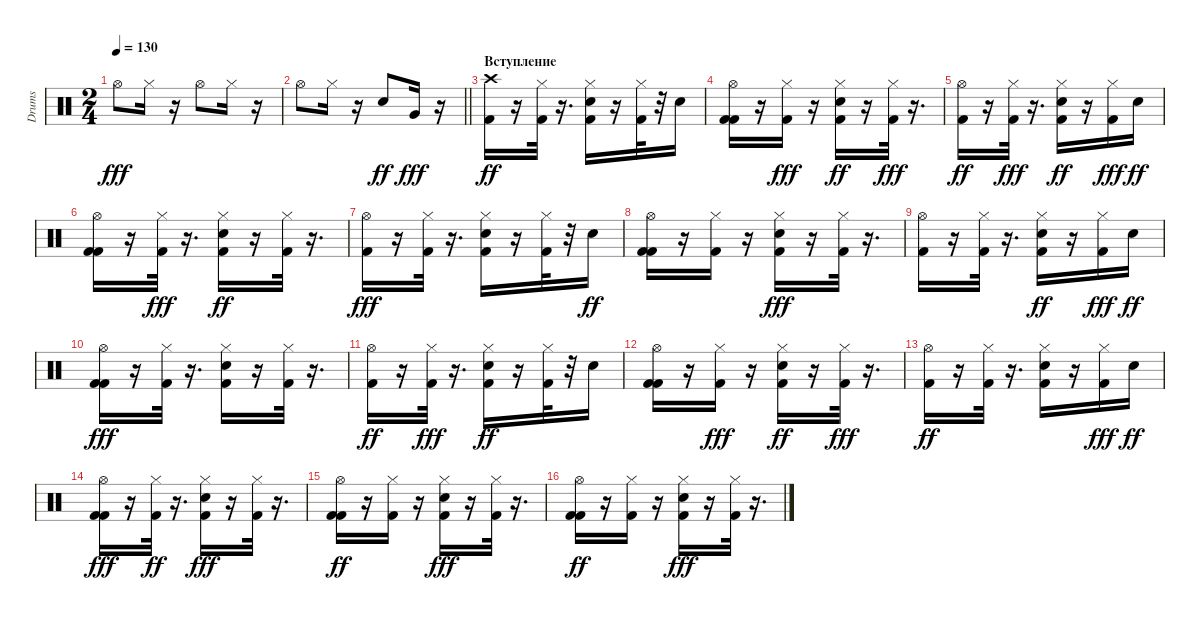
\track ("Drums" "Drums") {solo instrument percussion}
\staff {score}
\articulation defaults
\ts (2 4)
\tempo 130
\clef neutral
\ks c "Hi-Hat (open)".8{dy fff} "Hi-Hat (closed)".16
r.16 "Hi-Hat (open)".8 "Hi-Hat (closed)".16 r.16 |
\barLineRight lightlight "Hi-Hat (open)".8 "Hi-Hat (closed)".16
r.16 "Electric Snare (hit)".8{dy ff} "Very Low Tom (hit)".16{dy fff} r.16 |
\section ("" "Вступление")
("Crash high (hit)" "Kick (hit) 2").16{dy ff} r.16 ("Hi-Hat (closed)" "Kick (hit) 2").32 r.16{d} ("Hi-Hat (closed)" "Snare (hit) 2" "Kick (hit) 2").16 r.16 ("Hi-Hat (closed)" "Kick (hit) 2").32 r.32 "Snare (hit) 2".16 |
("Kick (hit) 2" "Hi-Hat (open)" "Kick (hit) 2").16 r.16 ("Kick (hit) 2" "Hi-Hat (closed)").16{dy fff} r.16 ("Snare (hit) 2" "Hi-Hat (closed)" "Kick (hit) 2").16{dy ff} r.16 ("Kick (hit) 2" "Hi-Hat (closed)").32{dy fff} r.16{d} |
("Hi-Hat (open)" "Kick (hit) 2").16{dy ff} r.16 ("Kick (hit) 2" "Hi-Hat (closed)").32{dy fff} r.16{d} ("Kick (hit) 2" "Hi-Hat (closed)" "Snare (hit) 2").16{dy ff} r.16 ("Kick (hit) 2" "Hi-Hat (closed)").16{dy fff} "Snare (hit) 2".16{dy ff} |
("Kick (hit) 2" "Hi-Hat (open)" "Kick (hit) 2").16 r.16 ("Kick (hit) 2" "Hi-Hat (closed)").32{dy fff} r.16{d} ("Hi-Hat (closed)" "Kick (hit) 2" "Snare (hit) 2").16{dy ff} r.16 ("Hi-Hat (closed)" "Kick (hit) 2").32 r.16{d} |
("Kick (hit) 2" "Hi-Hat (open)").16{dy fff} r.16 ("Kick (hit) 2" "Hi-Hat (closed)").32 r.16{d} ("Snare (hit) 2" "Kick (hit) 2" "Hi-Hat (closed)").16 r.16 ("Kick (hit) 2" "Hi-Hat (closed)").32 r.32 "Snare (hit) 2".16{dy ff} |
("Kick (hit) 2" "Hi-Hat (open)" "Kick (hit) 2").16 r.16 ("Hi-Hat (closed)" "Kick (hit) 2").16 r.16 ("Snare (hit) 2" "Kick (hit) 2" "Hi-Hat (closed)").16{dy fff} r.16 ("Kick (hit) 2" "Hi-Hat (closed)").32 r.16{d} |
("Kick (hit) 2" "Hi-Hat (open)").16 r.16 ("Kick (hit) 2" "Hi-Hat (closed)").32 r.16{d} ("Hi-Hat (closed)" "Kick (hit) 2" "Snare (hit) 2").16{dy ff} r.16 ("Kick (hit) 2" "Hi-Hat (closed)").16{dy fff} "Snare (hit) 2".16{dy ff} |
("Kick (hit) 2" "Kick (hit) 2" "Hi-Hat (open)").16{dy fff} r.16 ("Kick (hit) 2" "Hi-Hat (closed)").32 r.16{d} ("Snare (hit) 2" "Kick (hit) 2" "Hi-Hat (closed)").16 r.16 ("Kick (hit) 2" "Hi-Hat (closed)").32 r.16{d} |
("Hi-Hat (open)" "Kick (hit) 2").16{dy ff} r.16 ("Kick (hit) 2" "Hi-Hat (closed)").32{dy fff} r.16{d} ("Snare (hit) 2" "Hi-Hat (closed)" "Kick (hit) 2").16{dy ff} r.16 ("Hi-Hat (closed)" "Kick (hit) 2").32 r.32 "Snare (hit) 2".16 |
("Hi-Hat (open)" "Kick (hit) 2" "Kick (hit) 2").16 r.16 ("Kick (hit) 2" "Hi-Hat (closed)").16{dy fff} r.16 ("Hi-Hat (closed)" "Kick (hit) 2" "Snare (hit) 2").16{dy ff} r.16 ("Kick (hit) 2" "Hi-Hat (closed)").32{dy fff} r.16{d} |
("Hi-Hat (open)" "Kick (hit) 2").16{dy ff} r.16 ("Hi-Hat (closed)" "Kick (hit) 2").32 r.16{d} ("Hi-Hat (closed)" "Kick (hit) 2" "Snare (hit) 2").16 r.16 ("Kick (hit) 2" "Hi-Hat (closed)").16{dy fff} "Snare (hit) 2".16{dy ff} |
("Kick (hit) 2" "Kick (hit) 2" "Hi-Hat (open)").16{dy fff} r.16 ("Hi-Hat (closed)" "Kick (hit) 2").32{dy ff} r.16{d} ("Snare (hit) 2" "Kick (hit) 2" "Hi-Hat (closed)").16{dy fff} r.16 ("Kick (hit) 2" "Hi-Hat (closed)").32 r.16{d} |
("Hi-Hat (open)" "Kick (hit) 2" "Kick (hit) 2").16{dy ff} r.16 ("Hi-Hat (closed)" "Kick (hit) 2").16 r.16 ("Snare (hit) 2" "Kick (hit) 2" "Hi-Hat (closed)").16{dy fff} r.16 ("Kick (hit) 2" "Hi-Hat (closed)").32 r.16{d} |
("Kick (hit) 2" "Hi-Hat (open)" "Kick (hit) 2").16{dy ff} r.16 ("Hi-Hat (closed)" "Kick (hit) 2").16 r.16 ("Snare (hit) 2" "Kick (hit) 2" "Hi-Hat (closed)").16{dy fff} r.16 ("Kick (hit) 2" "Hi-Hat (closed)").32 r.16{d}
